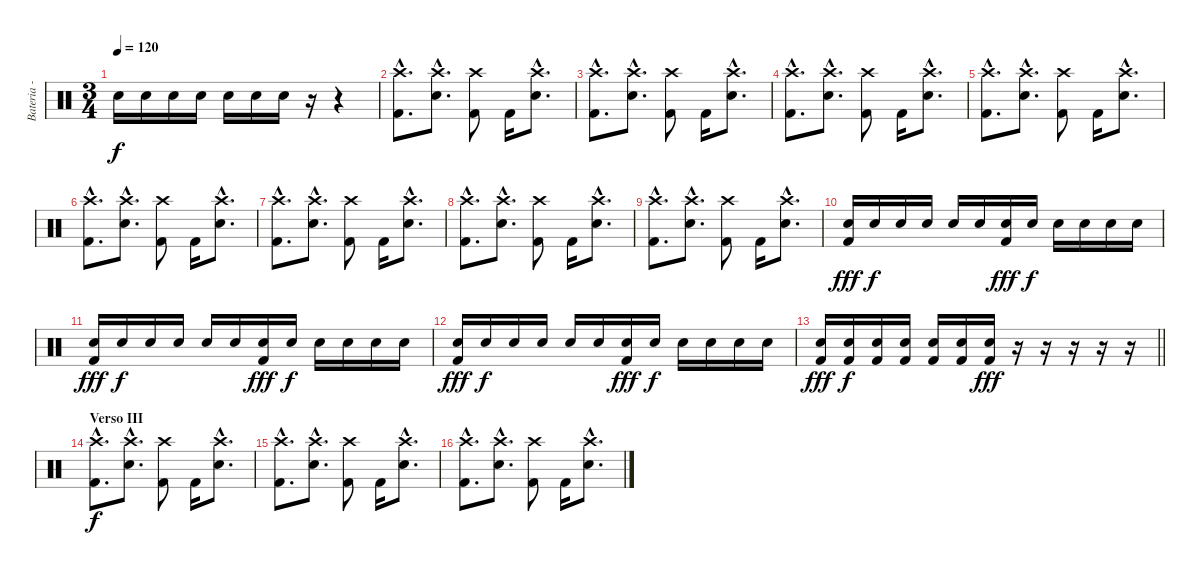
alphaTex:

\track ("Bateria - Larzon" "Bateria - ") {instrument percussion}
\staff {score}
\articulation defaults
\ts (3 4)
\tempo 120
\clef neutral
\ks c "Snare (hit) 2".16{dy f} "Snare (hit) 2".16 "Snare (hit) 2".16 "Snare (hit) 2".16 "Snare (hit) 2".16 "Snare (hit) 2".16 "Snare (hit) 2".16
r.16 r.4 |
("Kick (hit) 2"{hac} "Crash high (hit)"{hac}).8{d} ("Snare (hit) 2"{hac} "Crash high (hit)"{hac}).8{d} ("Kick (hit) 2" "Crash high (hit)").8 "Kick (hit) 2".16 ("Snare (hit) 2"{hac} "Crash high (hit)"{hac}).8{d} |
("Kick (hit) 2"{hac} "Crash high (hit)"{hac}).8{d} ("Snare (hit) 2"{hac} "Crash high (hit)"{hac}).8{d} ("Kick (hit) 2" "Crash high (hit)").8 "Kick (hit) 2".16 ("Snare (hit) 2"{hac} "Crash high (hit)"{hac}).8{d} |
("Kick (hit) 2"{hac} "Crash high (hit)"{hac}).8{d} ("Snare (hit) 2"{hac} "Crash high (hit)"{hac}).8{d} ("Kick (hit) 2" "Crash high (hit)").8 "Kick (hit) 2".16 ("Snare (hit) 2"{hac} "Crash high (hit)"{hac}).8{d} |
("Kick (hit) 2"{hac} "Crash high (hit)"{hac}).8{d} ("Snare (hit) 2"{hac} "Crash high (hit)"{hac}).8{d} ("Kick (hit) 2" "Crash high (hit)").8 "Kick (hit) 2".16 ("Snare (hit) 2"{hac} "Crash high (hit)"{hac}).8{d} |
("Kick (hit) 2"{hac} "Crash high (hit)"{hac}).8{d} ("Snare (hit) 2"{hac} "Crash high (hit)"{hac}).8{d} ("Kick (hit) 2" "Crash high (hit)").8 "Kick (hit) 2".16 ("Snare (hit) 2"{hac} "Crash high (hit)"{hac}).8{d} |
("Kick (hit) 2"{hac} "Crash high (hit)"{hac}).8{d} ("Snare (hit) 2"{hac} "Crash high (hit)"{hac}).8{d} ("Kick (hit) 2" "Crash high (hit)").8 "Kick (hit) 2".16 ("Snare (hit) 2"{hac} "Crash high (hit)"{hac}).8{d} |
("Kick (hit) 2"{hac} "Crash high (hit)"{hac}).8{d} ("Snare (hit) 2"{hac} "Crash high (hit)"{hac}).8{d} ("Kick (hit) 2" "Crash high (hit)").8 "Kick (hit) 2".16 ("Snare (hit) 2"{hac} "Crash high (hit)"{hac}).8{d} |
("Kick (hit) 2"{hac} "Crash high (hit)"{hac}).8{d} ("Snare (hit) 2"{hac} "Crash high (hit)"{hac}).8{d} ("Kick (hit) 2" "Crash high (hit)").8 "Kick (hit) 2".16 ("Snare (hit) 2"{hac} "Crash high (hit)"{hac}).8{d} |
("Kick (hit) 2" "Snare (hit) 2").16{dy fff} "Snare (hit) 2".16{dy f} "Snare (hit) 2".16 "Snare (hit) 2".16 "Snare (hit) 2".16 "Snare (hit) 2".16 ("Kick (hit) 2" "Snare (hit) 2").16{dy fff} "Snare (hit) 2".16{dy f} "Snare (hit) 2".16 "Snare (hit) 2".16 "Snare (hit) 2".16 "Snare (hit) 2".16 |
("Kick (hit) 2" "Snare (hit) 2").16{dy fff} "Snare (hit) 2".16{dy f} "Snare (hit) 2".16 "Snare (hit) 2".16 "Snare (hit) 2".16 "Snare (hit) 2".16 ("Kick (hit) 2" "Snare (hit) 2").16{dy fff} "Snare (hit) 2".16{dy f} "Snare (hit) 2".16 "Snare (hit) 2".16 "Snare (hit) 2".16 "Snare (hit) 2".16 |
("Kick (hit) 2" "Snare (hit) 2").16{dy fff} "Snare (hit) 2".16{dy f} "Snare (hit) 2".16 "Snare (hit) 2".16 "Snare (hit) 2".16 "Snare (hit) 2".16 ("Kick (hit) 2" "Snare (hit) 2").16{dy fff} "Snare (hit) 2".16{dy f} "Snare (hit) 2".16 "Snare (hit) 2".16 "Snare (hit) 2".16 "Snare (hit) 2".16 |
\barLineRight lightlight
("Kick (hit) 2" "Snare (hit) 2").16{dy fff volume 16} ("Kick (hit) 2" "Snare (hit) 2").16{dy f} ("Kick (hit) 2" "Snare (hit) 2").16 ("Kick (hit) 2" "Snare (hit) 2").16 ("Kick (hit) 2" "Snare (hit) 2").16 ("Kick (hit) 2" "Snare (hit) 2").16 ("Kick (hit) 2" "Snare (hit) 2").16{dy fff} r.16 r.16 r.16 r.16 r.16 |
\section ("" "Verso III")
("Kick (hit) 2"{hac} "Crash high (hit)"{hac}).8{d dy f} ("Snare (hit) 2"{hac} "Crash high (hit)"{hac}).8{d} ("Kick (hit) 2" "Crash high (hit)").8 "Kick (hit) 2".16 ("Snare (hit) 2"{hac} "Crash high (hit)"{hac}).8{d} |
("Kick (hit) 2"{hac} "Crash high (hit)"{hac}).8{d} ("Snare (hit) 2"{hac} "Crash high (hit)"{hac}).8{d} ("Kick (hit) 2" "Crash high (hit)").8 "Kick (hit) 2".16 ("Snare (hit) 2"{hac} "Crash high (hit)"{hac}).8{d} |
("Kick (hit) 2"{hac} "Crash high (hit)"{hac}).8{d} ("Snare (hit) 2"{hac} "Crash high (hit)"{hac}).8{d} ("Kick (hit) 2" "Crash high (hit)").8 "Kick (hit) 2".16 ("Snare (hit) 2"{hac} "Crash high (hit)"{hac}).8{d}
